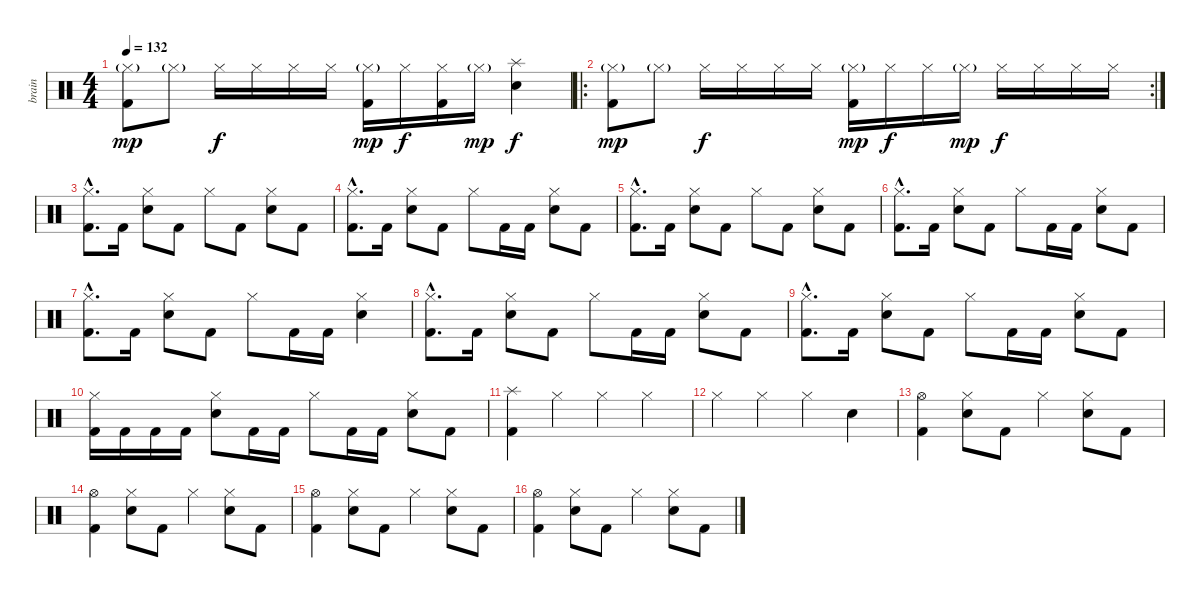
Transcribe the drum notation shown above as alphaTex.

\track ("brain" "brain") {instrument percussion}
\staff {score}
\articulation defaults
\ts (4 4)
\tempo 132
\clef neutral
\ks c
("Hi-Hat (closed)"{g} "Kick (hit) 2").8{dy mp} "Hi-Hat (closed)"{g}.8 "Hi-Hat (closed)".16{dy f} "Hi-Hat (closed)".16 "Hi-Hat (closed)".16 "Hi-Hat (closed)".16 ("Hi-Hat (closed)"{g} "Kick (hit) 2").16{dy mp} "Hi-Hat (closed)".16{dy f} ("Hi-Hat (closed)" "Kick (hit) 2").16 "Hi-Hat (closed)"{g}.16{dy mp} ("Splash (hit)" "Electric Snare (hit)").4{dy f} |
\ro
\rc 2
("Hi-Hat (closed)"{g} "Kick (hit) 2").8{dy mp} "Hi-Hat (closed)"{g}.8 "Hi-Hat (closed)".16{dy f} "Hi-Hat (closed)".16 "Hi-Hat (closed)".16 "Hi-Hat (closed)".16 ("Hi-Hat (closed)"{g} "Kick (hit) 2").16{dy mp} "Hi-Hat (closed)".16{dy f} "Hi-Hat (closed)".16 "Hi-Hat (closed)"{g}.16{dy mp} "Hi-Hat (closed)".16{dy f} "Hi-Hat (closed)".16 "Hi-Hat (closed)".16 "Hi-Hat (closed)".16 |
("Hi-Hat (closed)"{hac} "Kick (hit) 2"{hac}).8{d} "Kick (hit) 2".16 ("Hi-Hat (closed)" "Electric Snare (hit)").8 "Kick (hit) 2".8 "Hi-Hat (closed)".8 "Kick (hit) 2".8 ("Hi-Hat (closed)" "Electric Snare (hit)").8 "Kick (hit) 2".8 |
("Hi-Hat (closed)"{hac} "Kick (hit) 2"{hac}).8{d} "Kick (hit) 2".16 ("Hi-Hat (closed)" "Electric Snare (hit)").8 "Kick (hit) 2".8 "Hi-Hat (closed)".8 "Kick (hit) 2".16 "Kick (hit) 2".16 ("Hi-Hat (closed)" "Electric Snare (hit)").8 "Kick (hit) 2".8 |
("Hi-Hat (closed)"{hac} "Kick (hit) 2"{hac}).8{d} "Kick (hit) 2".16 ("Hi-Hat (closed)" "Electric Snare (hit)").8 "Kick (hit) 2".8 "Hi-Hat (closed)".8 "Kick (hit) 2".8 ("Hi-Hat (closed)" "Electric Snare (hit)").8 "Kick (hit) 2".8 |
("Hi-Hat (closed)"{hac} "Kick (hit) 2"{hac}).8{d} "Kick (hit) 2".16 ("Hi-Hat (closed)" "Electric Snare (hit)").8 "Kick (hit) 2".8 "Hi-Hat (closed)".8 "Kick (hit) 2".16 "Kick (hit) 2".16 ("Hi-Hat (closed)" "Electric Snare (hit)").8 "Kick (hit) 2".8 |
("Hi-Hat (closed)"{hac} "Kick (hit) 2"{hac}).8{d} "Kick (hit) 2".16 ("Hi-Hat (closed)" "Electric Snare (hit)").8 "Kick (hit) 2".8 "Hi-Hat (closed)".8 "Kick (hit) 2".16 "Kick (hit) 2".16 ("Hi-Hat (closed)" "Electric Snare (hit)").4 |
("Hi-Hat (closed)"{hac} "Kick (hit) 2"{hac}).8{d} "Kick (hit) 2".16 ("Hi-Hat (closed)" "Electric Snare (hit)").8 "Kick (hit) 2".8 "Hi-Hat (closed)".8 "Kick (hit) 2".16 "Kick (hit) 2".16 ("Hi-Hat (closed)" "Electric Snare (hit)").8 "Kick (hit) 2".8 |
("Hi-Hat (closed)"{hac} "Kick (hit) 2"{hac}).8{d} "Kick (hit) 2".16 ("Hi-Hat (closed)" "Electric Snare (hit)").8 "Kick (hit) 2".8 "Hi-Hat (closed)".8 "Kick (hit) 2".16 "Kick (hit) 2".16 ("Hi-Hat (closed)" "Electric Snare (hit)").8 "Kick (hit) 2".8 |
("Hi-Hat (closed)" "Kick (hit) 2").16 "Kick (hit) 2".16 "Kick (hit) 2".16 "Kick (hit) 2".16 ("Hi-Hat (closed)" "Electric Snare (hit)").8 "Kick (hit) 2".16 "Kick (hit) 2".16 "Hi-Hat (closed)".8 "Kick (hit) 2".16 "Kick (hit) 2".16 ("Hi-Hat (closed)" "Electric Snare (hit)").8 "Kick (hit) 2".8 |
("Splash (hit)" "Kick (hit) 2").4 "Hi-Hat (closed)".4 "Hi-Hat (closed)".4 "Hi-Hat (closed)".4 |
"Hi-Hat (closed)".4 "Hi-Hat (closed)".4 "Hi-Hat (closed)".4 "Snare (hit)".4 |
("Hi-Hat (open)" "Kick (hit) 2").4 ("Hi-Hat (closed)" "Electric Snare (hit)").8 "Kick (hit) 2".8 "Hi-Hat (closed)".4 ("Hi-Hat (closed)" "Electric Snare (hit)").8 "Kick (hit) 2".8 |
("Hi-Hat (open)" "Kick (hit) 2").4 ("Hi-Hat (closed)" "Electric Snare (hit)").8 "Kick (hit) 2".8 "Hi-Hat (closed)".4 ("Hi-Hat (closed)" "Electric Snare (hit)").8 "Kick (hit) 2".8 |
("Hi-Hat (open)" "Kick (hit) 2").4 ("Hi-Hat (closed)" "Electric Snare (hit)").8 "Kick (hit) 2".8 "Hi-Hat (closed)".4 ("Hi-Hat (closed)" "Electric Snare (hit)").8 "Kick (hit) 2".8 |
("Hi-Hat (open)" "Kick (hit) 2").4 ("Hi-Hat (closed)" "Electric Snare (hit)").8 "Kick (hit) 2".8 "Hi-Hat (closed)".4 ("Hi-Hat (closed)" "Electric Snare (hit)").8 "Kick (hit) 2".8
